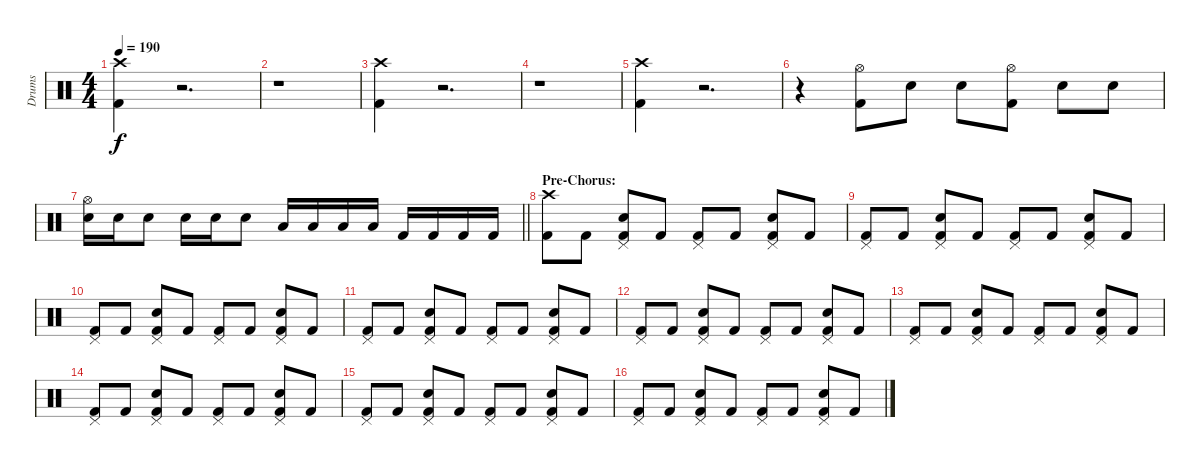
\track ("Drums" "Drums") {instrument percussion}
\staff {score}
\articulation defaults
\ts (4 4)
\tempo 190
\clef neutral
\ks c
("Crash high (hit)" "Kick (hit) 2").4{dy f} r.2{d} |
r.1 |
("Crash high (hit)" "Kick (hit) 2").4 r.2{d} |
r.1 |
("Crash high (hit)" "Kick (hit) 2").4 r.2{d} |
r.4 ("Hi-Hat (open)" "Kick (hit) 2").8 "Electric Snare (hit)".8 "Electric Snare (hit)".8 ("Hi-Hat (open)" "Kick (hit) 2").8 "Electric Snare (hit)".8 "Electric Snare (hit)".8 |
\barLineRight lightlight
("Hi-Hat (open)" "Electric Snare (hit)").16 "Electric Snare (hit)".16 "Electric Snare (hit)".8 "Electric Snare (hit)".16 "Electric Snare (hit)".16 "Electric Snare (hit)".8 "Low Tom (hit)".16 "Low Tom (hit)".16 "Low Tom (hit)".16 "Low Tom (hit)".16 "Kick (hit) 2".16 "Kick (hit) 2".16 "Kick (hit) 2".16 "Kick (hit) 2".16 |
\section ("" "Pre-Chorus:")
("Crash high (hit)" "Kick (hit) 2").8 "Kick (hit) 2".8 ("Pedal Hi-Hat (hit)" "Electric Snare (hit)" "Kick (hit) 2").8 "Kick (hit) 2".8 ("Pedal Hi-Hat (hit)" "Kick (hit) 2").8 "Kick (hit) 2".8 ("Pedal Hi-Hat (hit)" "Electric Snare (hit)" "Kick (hit) 2").8 "Kick (hit) 2".8 |
("Pedal Hi-Hat (hit)" "Kick (hit) 2").8 "Kick (hit) 2".8 ("Pedal Hi-Hat (hit)" "Electric Snare (hit)" "Kick (hit) 2").8 "Kick (hit) 2".8 ("Pedal Hi-Hat (hit)" "Kick (hit) 2").8 "Kick (hit) 2".8 ("Pedal Hi-Hat (hit)" "Electric Snare (hit)" "Kick (hit) 2").8 "Kick (hit) 2".8 |
("Pedal Hi-Hat (hit)" "Kick (hit) 2").8 "Kick (hit) 2".8 ("Pedal Hi-Hat (hit)" "Electric Snare (hit)" "Kick (hit) 2").8 "Kick (hit) 2".8 ("Pedal Hi-Hat (hit)" "Kick (hit) 2").8 "Kick (hit) 2".8 ("Pedal Hi-Hat (hit)" "Electric Snare (hit)" "Kick (hit) 2").8 "Kick (hit) 2".8 |
("Pedal Hi-Hat (hit)" "Kick (hit) 2").8 "Kick (hit) 2".8 ("Pedal Hi-Hat (hit)" "Electric Snare (hit)" "Kick (hit) 2").8 "Kick (hit) 2".8 ("Pedal Hi-Hat (hit)" "Kick (hit) 2").8 "Kick (hit) 2".8 ("Pedal Hi-Hat (hit)" "Electric Snare (hit)" "Kick (hit) 2").8 "Kick (hit) 2".8 |
("Pedal Hi-Hat (hit)" "Kick (hit) 2").8 "Kick (hit) 2".8 ("Pedal Hi-Hat (hit)" "Electric Snare (hit)" "Kick (hit) 2").8 "Kick (hit) 2".8 ("Pedal Hi-Hat (hit)" "Kick (hit) 2").8 "Kick (hit) 2".8 ("Pedal Hi-Hat (hit)" "Electric Snare (hit)" "Kick (hit) 2").8 "Kick (hit) 2".8 |
("Pedal Hi-Hat (hit)" "Kick (hit) 2").8 "Kick (hit) 2".8 ("Pedal Hi-Hat (hit)" "Electric Snare (hit)" "Kick (hit) 2").8 "Kick (hit) 2".8 ("Pedal Hi-Hat (hit)" "Kick (hit) 2").8 "Kick (hit) 2".8 ("Pedal Hi-Hat (hit)" "Electric Snare (hit)" "Kick (hit) 2").8 "Kick (hit) 2".8 |
("Pedal Hi-Hat (hit)" "Kick (hit) 2").8 "Kick (hit) 2".8 ("Pedal Hi-Hat (hit)" "Electric Snare (hit)" "Kick (hit) 2").8 "Kick (hit) 2".8 ("Pedal Hi-Hat (hit)" "Kick (hit) 2").8 "Kick (hit) 2".8 ("Pedal Hi-Hat (hit)" "Electric Snare (hit)" "Kick (hit) 2").8 "Kick (hit) 2".8 |
("Pedal Hi-Hat (hit)" "Kick (hit) 2").8 "Kick (hit) 2".8 ("Pedal Hi-Hat (hit)" "Electric Snare (hit)" "Kick (hit) 2").8 "Kick (hit) 2".8 ("Pedal Hi-Hat (hit)" "Kick (hit) 2").8 "Kick (hit) 2".8 ("Pedal Hi-Hat (hit)" "Electric Snare (hit)" "Kick (hit) 2").8 "Kick (hit) 2".8 |
("Pedal Hi-Hat (hit)" "Kick (hit) 2").8 "Kick (hit) 2".8 ("Pedal Hi-Hat (hit)" "Electric Snare (hit)" "Kick (hit) 2").8 "Kick (hit) 2".8 ("Pedal Hi-Hat (hit)" "Kick (hit) 2").8 "Kick (hit) 2".8 ("Pedal Hi-Hat (hit)" "Electric Snare (hit)" "Kick (hit) 2").8 "Kick (hit) 2".8
